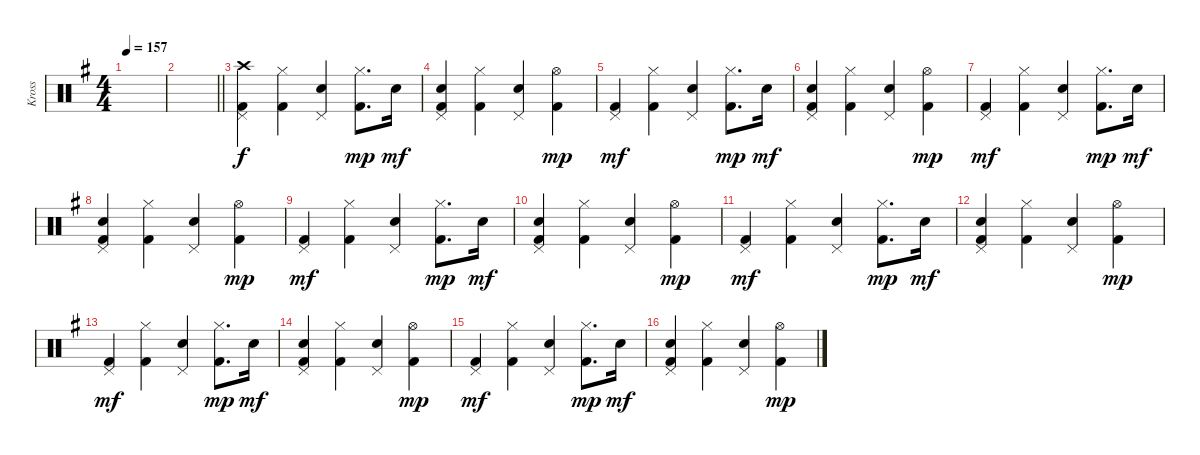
\track ("Kross" "Kross") {instrument percussion}
\staff {score}
\articulation defaults
\ts (4 4)
\tempo 157
\clef neutral
\ks g
|
\barLineRight lightlight
|
("Crash high (hit)" "Pedal Hi-Hat (hit)" "Kick (hit) 2").4 ("Hi-Hat (closed)" "Kick (hit) 2").4 ("Pedal Hi-Hat (hit)" "Snare (hit) 2").4 ("Hi-Hat (closed)" "Kick (hit) 2").8{d dy mp} "Electric Snare (hit)".16{dy mf} |
("Pedal Hi-Hat (hit)" "Snare (hit) 2" "Kick (hit) 2").4 ("Hi-Hat (closed)" "Kick (hit) 2").4 ("Pedal Hi-Hat (hit)" "Snare (hit) 2").4 ("Hi-Hat (open)" "Kick (hit) 2").4{dy mp} |
("Pedal Hi-Hat (hit)" "Kick (hit) 2").4{dy mf} ("Hi-Hat (closed)" "Kick (hit) 2").4 ("Pedal Hi-Hat (hit)" "Snare (hit) 2").4 ("Hi-Hat (closed)" "Kick (hit) 2").8{d dy mp} "Electric Snare (hit)".16{dy mf} |
("Pedal Hi-Hat (hit)" "Snare (hit) 2" "Kick (hit) 2").4 ("Hi-Hat (closed)" "Kick (hit) 2").4 ("Pedal Hi-Hat (hit)" "Snare (hit) 2").4 ("Hi-Hat (open)" "Kick (hit) 2").4{dy mp} |
("Pedal Hi-Hat (hit)" "Kick (hit) 2").4{dy mf} ("Hi-Hat (closed)" "Kick (hit) 2").4 ("Pedal Hi-Hat (hit)" "Snare (hit) 2").4 ("Hi-Hat (closed)" "Kick (hit) 2").8{d dy mp} "Electric Snare (hit)".16{dy mf} |
("Pedal Hi-Hat (hit)" "Snare (hit) 2" "Kick (hit) 2").4 ("Hi-Hat (closed)" "Kick (hit) 2").4 ("Pedal Hi-Hat (hit)" "Snare (hit) 2").4 ("Hi-Hat (open)" "Kick (hit) 2").4{dy mp} |
("Pedal Hi-Hat (hit)" "Kick (hit) 2").4{dy mf} ("Hi-Hat (closed)" "Kick (hit) 2").4 ("Pedal Hi-Hat (hit)" "Snare (hit) 2").4 ("Hi-Hat (closed)" "Kick (hit) 2").8{d dy mp} "Electric Snare (hit)".16{dy mf} |
("Pedal Hi-Hat (hit)" "Snare (hit) 2" "Kick (hit) 2").4 ("Hi-Hat (closed)" "Kick (hit) 2").4 ("Pedal Hi-Hat (hit)" "Snare (hit) 2").4 ("Hi-Hat (open)" "Kick (hit) 2").4{dy mp} |
("Pedal Hi-Hat (hit)" "Kick (hit) 2").4{dy mf} ("Hi-Hat (closed)" "Kick (hit) 2").4 ("Pedal Hi-Hat (hit)" "Snare (hit) 2").4 ("Hi-Hat (closed)" "Kick (hit) 2").8{d dy mp} "Electric Snare (hit)".16{dy mf} |
("Pedal Hi-Hat (hit)" "Snare (hit) 2" "Kick (hit) 2").4 ("Hi-Hat (closed)" "Kick (hit) 2").4 ("Pedal Hi-Hat (hit)" "Snare (hit) 2").4 ("Hi-Hat (open)" "Kick (hit) 2").4{dy mp} |
("Pedal Hi-Hat (hit)" "Kick (hit) 2").4{dy mf} ("Hi-Hat (closed)" "Kick (hit) 2").4 ("Pedal Hi-Hat (hit)" "Snare (hit) 2").4 ("Hi-Hat (closed)" "Kick (hit) 2").8{d dy mp} "Electric Snare (hit)".16{dy mf} |
("Pedal Hi-Hat (hit)" "Snare (hit) 2" "Kick (hit) 2").4 ("Hi-Hat (closed)" "Kick (hit) 2").4 ("Pedal Hi-Hat (hit)" "Snare (hit) 2").4 ("Hi-Hat (open)" "Kick (hit) 2").4{dy mp} |
("Pedal Hi-Hat (hit)" "Kick (hit) 2").4{dy mf} ("Hi-Hat (closed)" "Kick (hit) 2").4 ("Pedal Hi-Hat (hit)" "Snare (hit) 2").4 ("Hi-Hat (closed)" "Kick (hit) 2").8{d dy mp} "Electric Snare (hit)".16{dy mf} |
("Pedal Hi-Hat (hit)" "Snare (hit) 2" "Kick (hit) 2").4 ("Hi-Hat (closed)" "Kick (hit) 2").4 ("Pedal Hi-Hat (hit)" "Snare (hit) 2").4 ("Hi-Hat (open)" "Kick (hit) 2").4{dy mp}
